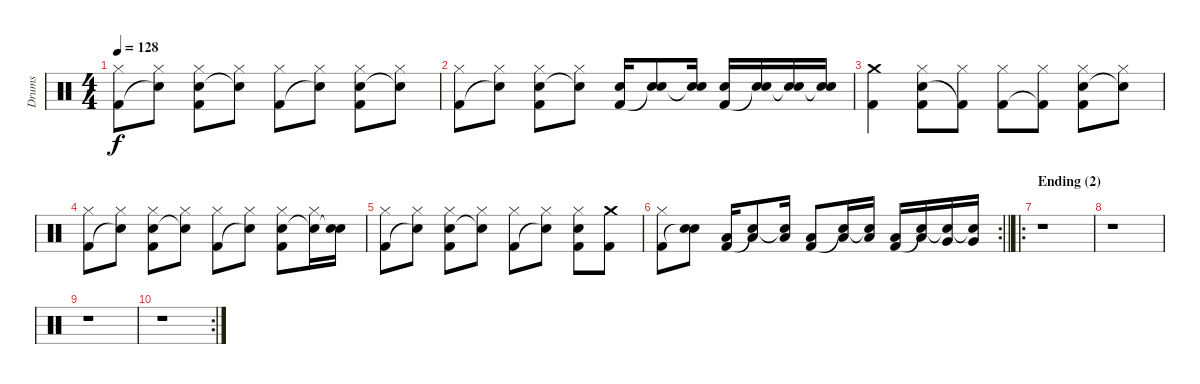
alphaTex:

\track ("Drums" "Drums") {instrument percussion}
\staff {score}
\articulation defaults
\ts (4 4)
\tempo 128
\clef neutral
\ks aminor
("Hi-Hat (closed)" "Kick (hit) 2").8{dy f} ("Hi-Hat (closed)" "Snare (hit)"{t}).8 ("Hi-Hat (closed)" "Electric Snare (hit)" "Kick (hit) 2").8 ("Hi-Hat (closed)" "Snare (hit)"{t}).8 ("Hi-Hat (closed)" "Kick (hit) 2").8 ("Hi-Hat (closed)" "Snare (hit)"{t}).8 ("Hi-Hat (closed)" "Electric Snare (hit)" "Kick (hit) 2").8 ("Hi-Hat (closed)" "Snare (hit)"{t}).8 |
("Hi-Hat (closed)" "Kick (hit) 2").8 ("Hi-Hat (closed)" "Snare (hit)"{t}).8 ("Hi-Hat (closed)" "Electric Snare (hit)" "Kick (hit) 2").8 ("Hi-Hat (closed)" "Snare (hit)"{t}).8 ("Electric Snare (hit)" "Kick (hit) 2").16 ("Electric Snare (hit)" "Snare (hit)"{t}).8 ("Electric Snare (hit)" "Snare (hit)"{t}).16 ("Electric Snare (hit)" "Kick (hit) 2").16 ("Electric Snare (hit)" "Snare (hit)"{t}).16 ("Electric Snare (hit)" "Snare (hit)"{t}).16 ("Electric Snare (hit)" "Snare (hit)"{t}).16 |
("Crash medium (hit)" "Kick (hit) 2").4 ("Hi-Hat (closed)" "Electric Snare (hit)" "Kick (hit) 2").8 ("Hi-Hat (closed)" "Kick (hit) 2"{t}).8 ("Hi-Hat (closed)" "Kick (hit) 2").8 ("Hi-Hat (closed)" "Kick (hit) 2"{t}).8 ("Hi-Hat (closed)" "Electric Snare (hit)" "Kick (hit) 2").8 ("Hi-Hat (closed)" "Snare (hit)"{t}).8 |
("Hi-Hat (closed)" "Kick (hit) 2").8 ("Hi-Hat (closed)" "Snare (hit)"{t}).8 ("Hi-Hat (closed)" "Electric Snare (hit)" "Kick (hit) 2").8 ("Hi-Hat (closed)" "Snare (hit)"{t}).8 ("Hi-Hat (closed)" "Kick (hit) 2").8 ("Hi-Hat (closed)" "Snare (hit)"{t}).8 ("Hi-Hat (closed)" "Electric Snare (hit)" "Kick (hit) 2").8 ("Hi-Hat (closed)" "Snare (hit)"{t}).16 ("Electric Snare (hit)" "Snare (hit)"{t}).16 |
("Hi-Hat (closed)" "Kick (hit) 2").8 ("Hi-Hat (closed)" "Snare (hit)"{t}).8 ("Hi-Hat (closed)" "Electric Snare (hit)" "Kick (hit) 2").8 ("Hi-Hat (closed)" "Snare (hit)"{t}).8 ("Hi-Hat (closed)" "Kick (hit) 2").8 ("Hi-Hat (closed)" "Snare (hit)"{t}).8 ("Hi-Hat (closed)" "Electric Snare (hit)" "Kick (hit) 2").8 ("Crash medium (hit)" "Kick (hit) 2").8 |
\rc 2
\barLineRight lightlight
("Hi-Hat (closed)" "Kick (hit) 2").8 ("Electric Snare (hit)" "Snare (hit)"{t}).8 ("Low Tom (hit)" "Kick (hit) 2").16 ("Low Tom (hit)" "Snare (hit)"{t}).8 ("Low Tom (hit)" "Snare (hit)"{t}).16 ("Low Tom (hit)" "Kick (hit) 2").8 ("Low Tom (hit)" "Snare (hit)"{t}).16 ("Low Tom (hit)" "Snare (hit)"{t}).16 ("Low Tom (hit)" "Kick (hit) 2").16 ("Low Tom (hit)" "Snare (hit)"{t}).16 ("Very Low Tom (hit)" "Snare (hit)"{t}).16 ("Very Low Tom (hit)" "Snare (hit)"{t}).16 |
\ro
\section ("" "Ending (2)")
r.1 |
r.1 |
r.1 |
\rc 2
r.1
